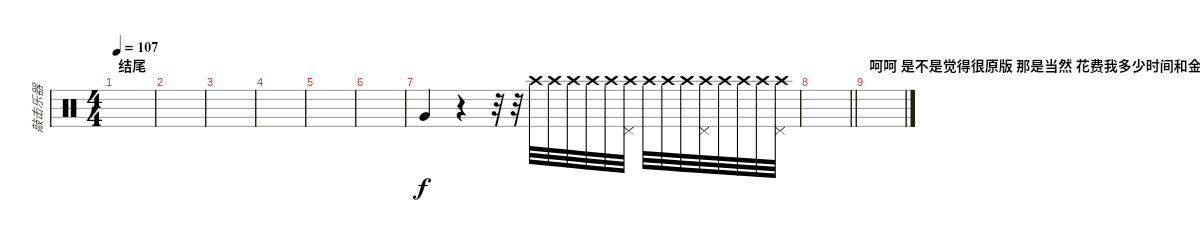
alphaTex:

\track ("敲击乐器" "敲击乐器") {instrument percussion}
\staff {score}
\articulation defaults
\ts (4 4)
\section ("" "结尾")
\tempo 107
\clef neutral
\ks c
|
|
|
|
|
|
"Very Low Tom (hit)".4 r.4 r.32 r.32 "Crash high (hit)".32{volume 0} "Crash high (hit)".32{volume 16} "Crash high (hit)".32 "Crash high (hit)".32 "Crash high (hit)".32 ("Crash high (hit)" "Pedal Hi-Hat (hit)").32 "Crash high (hit)".32 "Crash high (hit)".32 "Crash high (hit)".32 ("Crash high (hit)" "Pedal Hi-Hat (hit)").32 "Crash high (hit)".32 "Crash high (hit)".32 "Crash high (hit)".32 ("Crash high (hit)" "Pedal Hi-Hat (hit)").32 |
\barLineRight lightlight
|
\section ("" "呵呵 是不是觉得很原版 那是当然 花费我多少时间和金钱啊")
